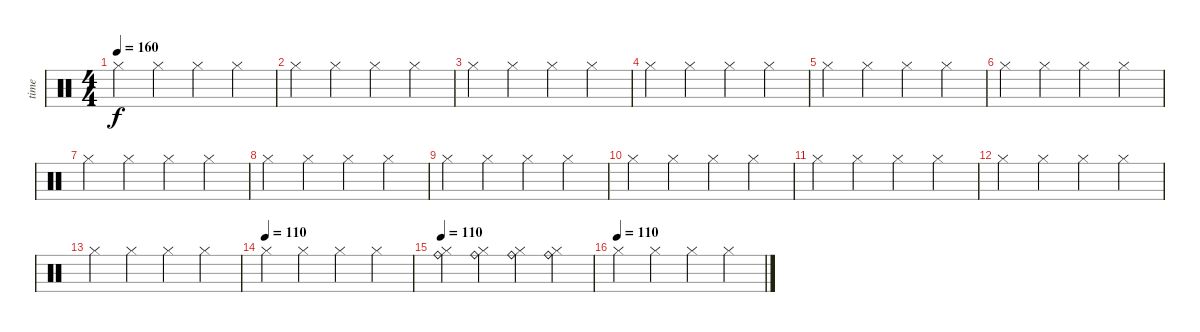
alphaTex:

\track ("time" "time") {instrument percussion}
\staff {score}
\articulation defaults
\ts (4 4)
\tempo 160
\clef neutral
\ks c "Hi-Hat (closed)".4{dy f} "Hi-Hat (closed)".4 "Hi-Hat (closed)".4 "Hi-Hat (closed)".4
|
"Hi-Hat (closed)".4 "Hi-Hat (closed)".4 "Hi-Hat (closed)".4 "Hi-Hat (closed)".4 |
"Hi-Hat (closed)".4 "Hi-Hat (closed)".4 "Hi-Hat (closed)".4 "Hi-Hat (closed)".4 |
"Hi-Hat (closed)".4 "Hi-Hat (closed)".4 "Hi-Hat (closed)".4 "Hi-Hat (closed)".4 |
"Hi-Hat (closed)".4 "Hi-Hat (closed)".4 "Hi-Hat (closed)".4 "Hi-Hat (closed)".4 |
"Hi-Hat (closed)".4 "Hi-Hat (closed)".4 "Hi-Hat (closed)".4 "Hi-Hat (closed)".4 |
"Hi-Hat (closed)".4 "Hi-Hat (closed)".4 "Hi-Hat (closed)".4 "Hi-Hat (closed)".4 |
"Hi-Hat (closed)".4 "Hi-Hat (closed)".4 "Hi-Hat (closed)".4 "Hi-Hat (closed)".4 |
"Hi-Hat (closed)".4 "Hi-Hat (closed)".4 "Hi-Hat (closed)".4 "Hi-Hat (closed)".4 |
"Hi-Hat (closed)".4 "Hi-Hat (closed)".4 "Hi-Hat (closed)".4 "Hi-Hat (closed)".4 |
"Hi-Hat (closed)".4 "Hi-Hat (closed)".4 "Hi-Hat (closed)".4 "Hi-Hat (closed)".4 |
"Hi-Hat (closed)".4 "Hi-Hat (closed)".4 "Hi-Hat (closed)".4 "Hi-Hat (closed)".4 |
"Hi-Hat (closed)".4 "Hi-Hat (closed)".4 "Hi-Hat (closed)".4 "Hi-Hat (closed)".4 |
\tempo (110)
"Hi-Hat (closed)".4 "Hi-Hat (closed)".4 "Hi-Hat (closed)".4 "Hi-Hat (closed)".4 |
\tempo 110
("Ride (bell)" "Hi-Hat (closed)").4 ("Ride (bell)" "Hi-Hat (closed)").4 ("Ride (bell)" "Hi-Hat (closed)").4 ("Ride (bell)" "Hi-Hat (closed)").4 |
\tempo (110)
"Hi-Hat (closed)".4 "Hi-Hat (closed)".4 "Hi-Hat (closed)".4 "Hi-Hat (closed)".4
